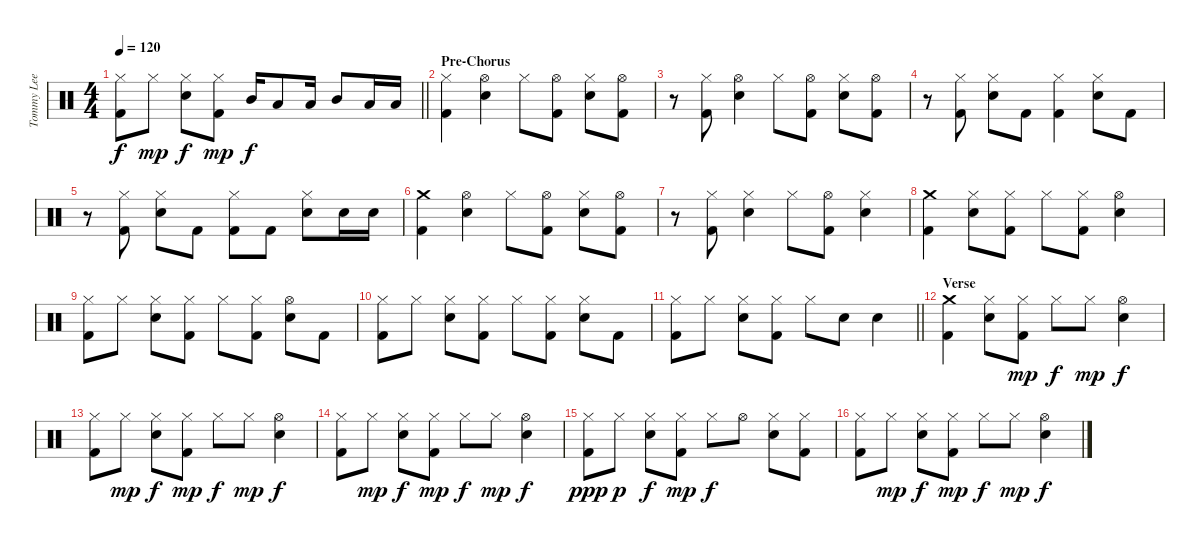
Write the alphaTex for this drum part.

\track ("Tommy Lee - Drums" "Tommy Lee ") {instrument percussion}
\staff {score}
\articulation defaults
\ts (4 4)
\tempo 120
\clef neutral
\barLineRight lightlight
\ks c
("Hi-Hat (closed)" "Kick (hit) 2").8{dy f} "Hi-Hat (closed)".8{dy mp} ("Hi-Hat (closed)" "Snare (hit) 2").8{dy f} ("Hi-Hat (closed)" "Kick (hit) 2").8{dy mp} "Mid Tom (hit)".16{dy f} "Low Tom (hit)".8 "Low Tom (hit)".16 "Mid Tom (hit)".8 "Low Tom (hit)".16 "Low Tom (hit)".16 |
\section ("" "Pre-Chorus")
("Hi-Hat (closed)" "Kick (hit) 2").4 ("Hi-Hat (open)" "Snare (hit) 2").4 "Hi-Hat (closed)".8 ("Hi-Hat (open)" "Kick (hit) 2").8 ("Hi-Hat (closed)" "Snare (hit) 2").8 ("Hi-Hat (open)" "Kick (hit) 2").8 |
r.8 ("Hi-Hat (closed)" "Kick (hit) 2").8 ("Hi-Hat (open)" "Snare (hit) 2").4 "Hi-Hat (closed)".8 ("Hi-Hat (open)" "Kick (hit) 2").8 ("Hi-Hat (closed)" "Snare (hit) 2").8 ("Hi-Hat (open)" "Kick (hit) 2").8 |
r.8 ("Hi-Hat (closed)" "Kick (hit) 2").8 ("Hi-Hat (closed)" "Snare (hit) 2").8 "Kick (hit) 2".8 ("Hi-Hat (closed)" "Kick (hit) 2").4 ("Hi-Hat (closed)" "Snare (hit) 2").8 "Kick (hit) 2".8 |
r.8 ("Hi-Hat (closed)" "Kick (hit) 2").8 ("Hi-Hat (closed)" "Snare (hit) 2").8 "Kick (hit) 2".8 ("Hi-Hat (closed)" "Kick (hit) 2").8 "Kick (hit) 2".8 ("Hi-Hat (closed)" "Snare (hit) 2").8 "Snare (hit) 2".16 "Snare (hit) 2".16 |
("Crash medium (hit)" "Kick (hit) 2").4 ("Hi-Hat (open)" "Snare (hit) 2").4 "Hi-Hat (closed)".8 ("Hi-Hat (open)" "Kick (hit) 2").8 ("Hi-Hat (closed)" "Snare (hit) 2").8 ("Hi-Hat (open)" "Kick (hit) 2").8 |
r.8 ("Hi-Hat (closed)" "Kick (hit) 2").8 ("Hi-Hat (closed)" "Snare (hit) 2").4 "Hi-Hat (closed)".8 ("Hi-Hat (open)" "Kick (hit) 2").8 ("Hi-Hat (closed)" "Snare (hit) 2").4 |
("Crash medium (hit)" "Kick (hit) 2").4 ("Hi-Hat (closed)" "Snare (hit) 2").8 ("Hi-Hat (closed)" "Kick (hit) 2").8 "Hi-Hat (closed)".8 ("Hi-Hat (closed)" "Kick (hit) 2").8 ("Hi-Hat (open)" "Snare (hit) 2").4 |
("Hi-Hat (closed)" "Kick (hit) 2").8 "Hi-Hat (closed)".8 ("Hi-Hat (closed)" "Snare (hit) 2").8 ("Hi-Hat (closed)" "Kick (hit) 2").8 "Hi-Hat (closed)".8 ("Hi-Hat (closed)" "Kick (hit) 2").8 ("Hi-Hat (open)" "Snare (hit) 2").8 "Kick (hit) 2".8 |
("Hi-Hat (closed)" "Kick (hit) 2").8 "Hi-Hat (closed)".8 ("Hi-Hat (closed)" "Snare (hit) 2").8 ("Hi-Hat (closed)" "Kick (hit) 2").8 "Hi-Hat (closed)".8 ("Hi-Hat (closed)" "Kick (hit) 2").8 ("Hi-Hat (closed)" "Snare (hit) 2").8 "Kick (hit) 2".8 |
\barLineRight lightlight
("Hi-Hat (closed)" "Kick (hit) 2").8 "Hi-Hat (closed)".8 ("Hi-Hat (closed)" "Snare (hit) 2").8 ("Hi-Hat (closed)" "Kick (hit) 2").8 "Hi-Hat (closed)".8 "Snare (hit) 2".8 "Snare (hit) 2".4 |
\section ("" "Verse")
("Crash medium (hit)" "Kick (hit) 2").4 ("Hi-Hat (closed)" "Snare (hit) 2").8 ("Hi-Hat (closed)" "Kick (hit) 2").8{dy mp} "Hi-Hat (closed)".8{dy f} "Hi-Hat (closed)".8{dy mp} ("Hi-Hat (open)" "Snare (hit) 2").4{dy f} |
("Hi-Hat (closed)" "Kick (hit) 2").8 "Hi-Hat (closed)".8{dy mp} ("Hi-Hat (closed)" "Snare (hit) 2").8{dy f} ("Hi-Hat (closed)" "Kick (hit) 2").8{dy mp} "Hi-Hat (closed)".8{dy f} "Hi-Hat (closed)".8{dy mp} ("Hi-Hat (open)" "Snare (hit) 2").4{dy f} |
("Hi-Hat (closed)" "Kick (hit) 2").8 "Hi-Hat (closed)".8{dy mp} ("Hi-Hat (closed)" "Snare (hit) 2").8{dy f} ("Hi-Hat (closed)" "Kick (hit) 2").8{dy mp} "Hi-Hat (closed)".8{dy f} "Hi-Hat (closed)".8{dy mp} ("Hi-Hat (open)" "Snare (hit) 2").4{dy f} |
("Hi-Hat (closed)" "Kick (hit) 2").8{dy ppp} "Hi-Hat (closed)".8{dy p} ("Hi-Hat (closed)" "Snare (hit) 2").8{dy f} ("Hi-Hat (closed)" "Kick (hit) 2").8{dy mp} "Hi-Hat (closed)".8{dy f} "Hi-Hat (open)".8 ("Hi-Hat (closed)" "Snare (hit) 2").8 ("Hi-Hat (closed)" "Kick (hit) 2").8 |
("Hi-Hat (closed)" "Kick (hit) 2").8 "Hi-Hat (closed)".8{dy mp} ("Hi-Hat (closed)" "Snare (hit) 2").8{dy f} ("Hi-Hat (closed)" "Kick (hit) 2").8{dy mp} "Hi-Hat (closed)".8{dy f} "Hi-Hat (closed)".8{dy mp} ("Hi-Hat (open)" "Snare (hit) 2").4{dy f}
